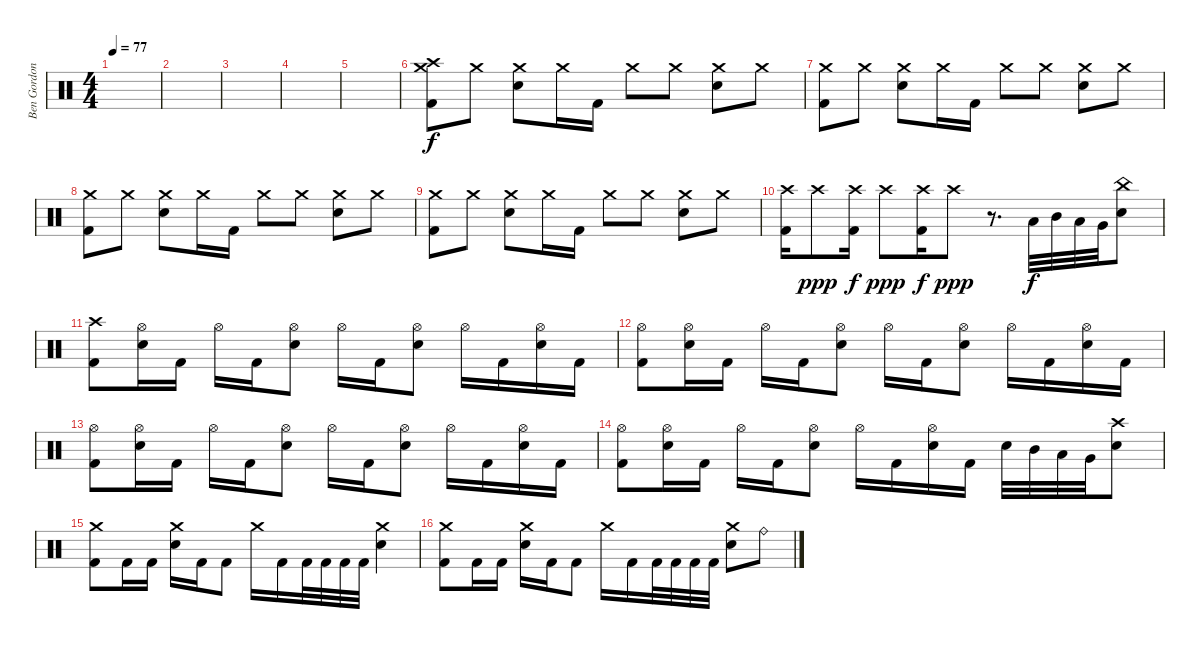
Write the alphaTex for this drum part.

\track ("Ben Gordon" "Ben Gordon") {instrument percussion}
\staff {score}
\articulation defaults
\ts (4 4)
\tempo 77
\clef neutral
\ks c
|
|
|
|
|
("Crash high (hit)" "Crash medium (hit)" "Kick (hit) 2").8 "Crash medium (hit)".8 ("Crash medium (hit)" "Electric Snare (hit)").8 "Crash medium (hit)".16 "Kick (hit) 2".16 "Crash medium (hit)".8 "Crash medium (hit)".8 ("Crash medium (hit)" "Electric Snare (hit)").8 "Crash medium (hit)".8 |
("Crash medium (hit)" "Kick (hit) 2").8 "Crash medium (hit)".8 ("Crash medium (hit)" "Electric Snare (hit)").8 "Crash medium (hit)".16 "Kick (hit) 2".16 "Crash medium (hit)".8 "Crash medium (hit)".8 ("Crash medium (hit)" "Electric Snare (hit)").8 "Crash medium (hit)".8 |
("Crash medium (hit)" "Kick (hit) 2").8 "Crash medium (hit)".8 ("Crash medium (hit)" "Electric Snare (hit)").8 "Crash medium (hit)".16 "Kick (hit) 2".16 "Crash medium (hit)".8 "Crash medium (hit)".8 ("Crash medium (hit)" "Electric Snare (hit)").8 "Crash medium (hit)".8 |
("Crash medium (hit)" "Kick (hit) 2").8 "Crash medium (hit)".8 ("Crash medium (hit)" "Electric Snare (hit)").8 "Crash medium (hit)".16 "Kick (hit) 2".16 "Crash medium (hit)".8 "Crash medium (hit)".8 ("Crash medium (hit)" "Electric Snare (hit)").8 "Crash medium (hit)".8 |
("Crash high (hit)" "Kick (hit) 2").16 "Crash high (hit)".8{dy ppp} ("Crash high (hit)" "Kick (hit) 2").16{dy f} "Crash high (hit)".8{dy ppp} ("Crash high (hit)" "Kick (hit) 2").16{dy f} "Crash high (hit)".8{dy ppp} r.8{d} "Low Tom (hit)".32{dy f} "Mid Tom (hit)".32 "Low Tom (hit)".32 "Very Low Tom (hit)".32 ("China (hit)" "Electric Snare (hit)").8 |
("Crash high (hit)" "Kick (hit) 2").8 ("Hi-Hat (open)" "Electric Snare (hit)").16 "Kick (hit) 2".16 "Hi-Hat (open)".16 "Kick (hit) 2".16 ("Hi-Hat (open)" "Electric Snare (hit)").8 "Hi-Hat (open)".16 "Kick (hit) 2".16 ("Hi-Hat (open)" "Electric Snare (hit)").8 "Hi-Hat (open)".16 "Kick (hit) 2".16 ("Hi-Hat (open)" "Electric Snare (hit)").16 "Kick (hit) 2".16 |
("Hi-Hat (open)" "Kick (hit) 2").8 ("Hi-Hat (open)" "Electric Snare (hit)").16 "Kick (hit) 2".16 "Hi-Hat (open)".16 "Kick (hit) 2".16 ("Hi-Hat (open)" "Electric Snare (hit)").8 "Hi-Hat (open)".16 "Kick (hit) 2".16 ("Hi-Hat (open)" "Electric Snare (hit)").8 "Hi-Hat (open)".16 "Kick (hit) 2".16 ("Hi-Hat (open)" "Electric Snare (hit)").16 "Kick (hit) 2".16 |
("Hi-Hat (open)" "Kick (hit) 2").8 ("Hi-Hat (open)" "Electric Snare (hit)").16 "Kick (hit) 2".16 "Hi-Hat (open)".16 "Kick (hit) 2".16 ("Hi-Hat (open)" "Electric Snare (hit)").8 "Hi-Hat (open)".16 "Kick (hit) 2".16 ("Hi-Hat (open)" "Electric Snare (hit)").8 "Hi-Hat (open)".16 "Kick (hit) 2".16 ("Hi-Hat (open)" "Electric Snare (hit)").16 "Kick (hit) 2".16 |
("Hi-Hat (open)" "Kick (hit) 2").8 ("Hi-Hat (open)" "Electric Snare (hit)").16 "Kick (hit) 2".16 "Hi-Hat (open)".16 "Kick (hit) 2".16 ("Hi-Hat (open)" "Electric Snare (hit)").8 "Hi-Hat (open)".16 "Kick (hit) 2".16 ("Hi-Hat (open)" "Electric Snare (hit)").16 "Kick (hit) 2".16 "Electric Snare (hit)".32 "Mid Tom (hit)".32 "Low Tom (hit)".32 "Very Low Tom (hit)".32 ("Crash high (hit)" "Electric Snare (hit)").8 |
("Crash medium (hit)" "Kick (hit) 2").8 "Kick (hit) 2".16 "Kick (hit) 2".16 ("Crash medium (hit)" "Electric Snare (hit)").16 "Kick (hit) 2".16 "Kick (hit) 2".8 "Crash medium (hit)".16 "Kick (hit) 2".16 "Kick (hit) 2".32 "Kick (hit) 2".32 "Kick (hit) 2".32 "Kick (hit) 2".32 ("Crash medium (hit)" "Electric Snare (hit)").4 |
("Crash medium (hit)" "Kick (hit) 2").8 "Kick (hit) 2".16 "Kick (hit) 2".16 ("Crash medium (hit)" "Electric Snare (hit)").16 "Kick (hit) 2".16 "Kick (hit) 2".8 "Crash medium (hit)".16 "Kick (hit) 2".16 "Kick (hit) 2".32 "Kick (hit) 2".32 "Kick (hit) 2".32 "Kick (hit) 2".32 ("Crash medium (hit)" "Electric Snare (hit)").8 "Ride (bell)".8
